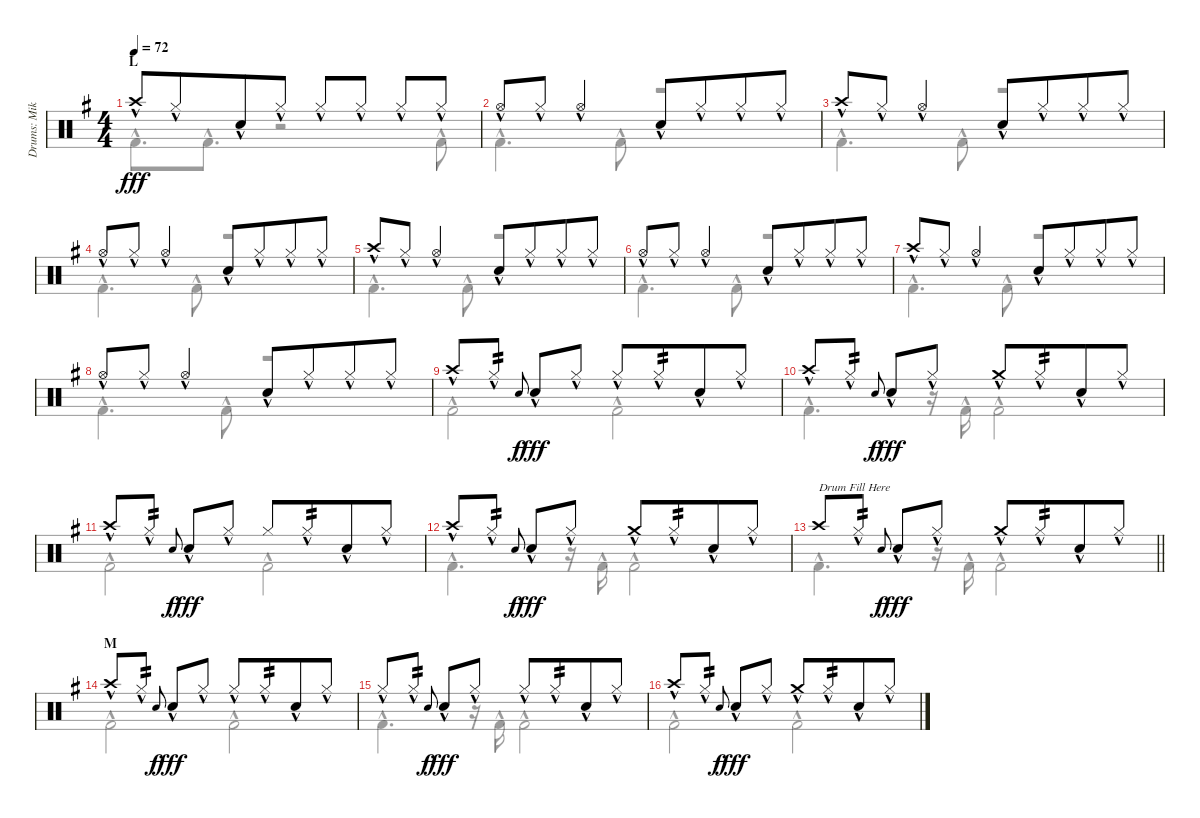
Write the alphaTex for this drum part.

\track ("Drums: Mike" "Drums: Mik") {instrument percussion}
\staff {score}
\articulation defaults
\voice
\ts (4 4)
\section ("" "L")
\tempo 72
\clef neutral
\ks g "Crash high (hit)"{hac}.8{dy fff} "Hi-Hat (closed)"{hac}.8{beam merge} "Snare (hit) 2"{hac}.8 "Hi-Hat (closed)"{hac}.8 "Hi-Hat (closed)"{hac}.8{beam merge} "Hi-Hat (closed)"{hac}.8 "Hi-Hat (closed)"{hac}.8 "Hi-Hat (closed)"{hac}.8
|
"Hi-Hat (open)"{hac}.8 "Hi-Hat (closed)"{hac}.8 "Hi-Hat (open)"{hac}.4 "Electric Snare (hit)"{hac}.8 "Hi-Hat (closed)"{hac}.8{beam merge} "Hi-Hat (closed)"{hac}.8 "Hi-Hat (closed)"{hac}.8 |
"Crash high (hit)"{hac}.8 "Hi-Hat (closed)"{hac}.8 "Hi-Hat (open)"{hac}.4 "Electric Snare (hit)"{hac}.8 "Hi-Hat (closed)"{hac}.8{beam merge} "Hi-Hat (closed)"{hac}.8 "Hi-Hat (closed)"{hac}.8 |
"Hi-Hat (open)"{hac}.8 "Hi-Hat (closed)"{hac}.8 "Hi-Hat (open)"{hac}.4 "Electric Snare (hit)"{hac}.8 "Hi-Hat (closed)"{hac}.8{beam merge} "Hi-Hat (closed)"{hac}.8 "Hi-Hat (closed)"{hac}.8 |
"Crash high (hit)"{hac}.8 "Hi-Hat (closed)"{hac}.8 "Hi-Hat (open)"{hac}.4 "Electric Snare (hit)"{hac}.8 "Hi-Hat (closed)"{hac}.8{beam merge} "Hi-Hat (closed)"{hac}.8 "Hi-Hat (closed)"{hac}.8 |
"Hi-Hat (open)"{hac}.8 "Hi-Hat (closed)"{hac}.8 "Hi-Hat (open)"{hac}.4 "Electric Snare (hit)"{hac}.8 "Hi-Hat (closed)"{hac}.8{beam merge} "Hi-Hat (closed)"{hac}.8 "Hi-Hat (closed)"{hac}.8 |
"Crash high (hit)"{hac}.8 "Hi-Hat (closed)"{hac}.8 "Hi-Hat (open)"{hac}.4 "Electric Snare (hit)"{hac}.8 "Hi-Hat (closed)"{hac}.8{beam merge} "Hi-Hat (closed)"{hac}.8 "Hi-Hat (closed)"{hac}.8 |
"Hi-Hat (open)"{hac}.8 "Hi-Hat (closed)"{hac}.8 "Hi-Hat (open)"{hac}.4 "Electric Snare (hit)"{hac}.8 "Hi-Hat (closed)"{hac}.8{beam merge} "Hi-Hat (closed)"{hac}.8 "Hi-Hat (closed)"{hac}.8 |
"Crash high (hit)"{hac}.8 "Hi-Hat (closed)"{hac}.8{tp 2} "Electric Snare (hit)".8{gr onbeat dy f beam merge} "Snare (hit) 2"{hac}.8{dy fff} "Hi-Hat (closed)"{hac}.8 "Hi-Hat (closed)"{hac}.8 "Hi-Hat (closed)"{hac}.8{tp 2 beam merge} "Snare (hit) 2"{hac}.8 "Hi-Hat (closed)"{hac}.8 |
"Crash high (hit)"{hac}.8 "Hi-Hat (closed)"{hac}.8{tp 2} "Electric Snare (hit)".8{gr onbeat dy f beam merge} "Snare (hit) 2"{hac}.8{dy fff} "Hi-Hat (closed)"{hac}.8 "Crash medium (hit)"{hac}.8 "Hi-Hat (closed)"{hac}.8{tp 2 beam merge} "Snare (hit) 2"{hac}.8 "Hi-Hat (closed)"{hac}.8 |
"Crash high (hit)"{hac}.8 "Hi-Hat (closed)"{hac}.8{tp 2} "Electric Snare (hit)".8{gr onbeat dy f beam merge} "Snare (hit) 2"{hac}.8{dy fff} "Hi-Hat (closed)"{hac}.8 "Hi-Hat (closed)".8 "Hi-Hat (closed)"{hac}.8{tp 2 beam merge} "Snare (hit) 2"{hac}.8 "Hi-Hat (closed)"{hac}.8 |
"Crash high (hit)"{hac}.8 "Hi-Hat (closed)"{hac}.8{tp 2} "Electric Snare (hit)".8{gr onbeat dy f beam merge} "Snare (hit) 2"{hac}.8{dy fff} "Hi-Hat (closed)"{hac}.8 "Crash medium (hit)"{hac}.8 "Hi-Hat (closed)"{hac}.8{tp 2 beam merge} "Snare (hit) 2"{hac}.8 "Hi-Hat (closed)"{hac}.8 |
\barLineRight lightlight "Crash high (hit)".8{txt "Drum Fill Here"} "Hi-Hat (closed)"{hac}.8{tp 2} "Electric Snare (hit)".8{gr onbeat dy f beam merge} "Snare (hit) 2"{hac}.8{dy fff} "Hi-Hat (closed)"{hac}.8 "Crash medium (hit)"{hac}.8 "Hi-Hat (closed)"{hac}.8{tp 2 beam merge} "Snare (hit) 2"{hac}.8 "Hi-Hat (closed)"{hac}.8
|
\section ("" "M")
"Crash high (hit)"{hac}.8 "Hi-Hat (closed)"{hac}.8{tp 2} "Electric Snare (hit)".8{gr onbeat dy f beam merge} "Snare (hit) 2"{hac}.8{dy fff} "Hi-Hat (closed)"{hac}.8 "Hi-Hat (closed)"{hac}.8 "Hi-Hat (closed)"{hac}.8{tp 2 beam merge} "Snare (hit) 2"{hac}.8 "Hi-Hat (closed)"{hac}.8 |
"Hi-Hat (closed)"{hac}.8 "Hi-Hat (closed)"{hac}.8{tp 2} "Electric Snare (hit)".8{gr onbeat dy f beam merge} "Snare (hit) 2"{hac}.8{dy fff} "Hi-Hat (closed)"{hac}.8 "Hi-Hat (closed)"{hac}.8 "Hi-Hat (closed)"{hac}.8{tp 2 beam merge} "Snare (hit) 2"{hac}.8 "Hi-Hat (closed)"{hac}.8 |
"Crash high (hit)"{hac}.8 "Hi-Hat (closed)"{hac}.8{tp 2} "Electric Snare (hit)".8{gr onbeat dy f beam merge} "Snare (hit) 2"{hac}.8{dy fff} "Hi-Hat (closed)"{hac}.8 "Crash medium (hit)"{hac}.8 "Hi-Hat (closed)"{hac}.8{tp 2 beam merge} "Snare (hit) 2"{hac}.8 "Hi-Hat (closed)"{hac}.8
\voice
\clef neutral
\ottava regular
\simile none
\ks g "Kick (hit) 2"{hac}.8{d dy fff} "Kick (hit) 2"{hac}.8{d}
r.2 "Kick (hit) 2"{hac}.8 |
"Kick (hit) 2"{hac}.4{d} "Kick (hit) 2"{hac}.8 r.2 |
"Kick (hit) 2"{hac}.4{d} "Kick (hit) 2"{hac}.8 r.2 |
"Kick (hit) 2"{hac}.4{d} "Kick (hit) 2"{hac}.8 r.2 |
"Kick (hit) 2"{hac}.4{d} "Kick (hit) 2"{hac}.8 r.2 |
"Kick (hit) 2"{hac}.4{d} "Kick (hit) 2"{hac}.8 r.2 |
"Kick (hit) 2"{hac}.4{d} "Kick (hit) 2"{hac}.8 r.2 |
"Kick (hit) 2"{hac}.4{d} "Kick (hit) 2"{hac}.8 r.2 |
"Kick (hit) 2"{hac}.2 "Kick (hit) 2"{hac}.2 |
"Kick (hit) 2"{hac}.4{d} r.16 "Kick (hit) 2"{hac}.16 "Kick (hit) 2"{hac}.2 |
"Kick (hit) 2"{hac}.2 "Kick (hit) 2"{hac}.2 |
"Kick (hit) 2"{hac}.4{d} r.16 "Kick (hit) 2"{hac}.16 "Kick (hit) 2"{hac}.2 |
\barLineRight lightlight "Kick (hit) 2"{hac}.4{d}
r.16 "Kick (hit) 2"{hac}.16 "Kick (hit) 2"{hac}.2 |
"Kick (hit) 2"{hac}.2 "Kick (hit) 2"{hac}.2 |
"Kick (hit) 2"{hac}.4{d} r.16 "Kick (hit) 2"{hac}.16 "Kick (hit) 2"{hac}.2 |
"Kick (hit) 2"{hac}.2 "Kick (hit) 2"{hac}.2
